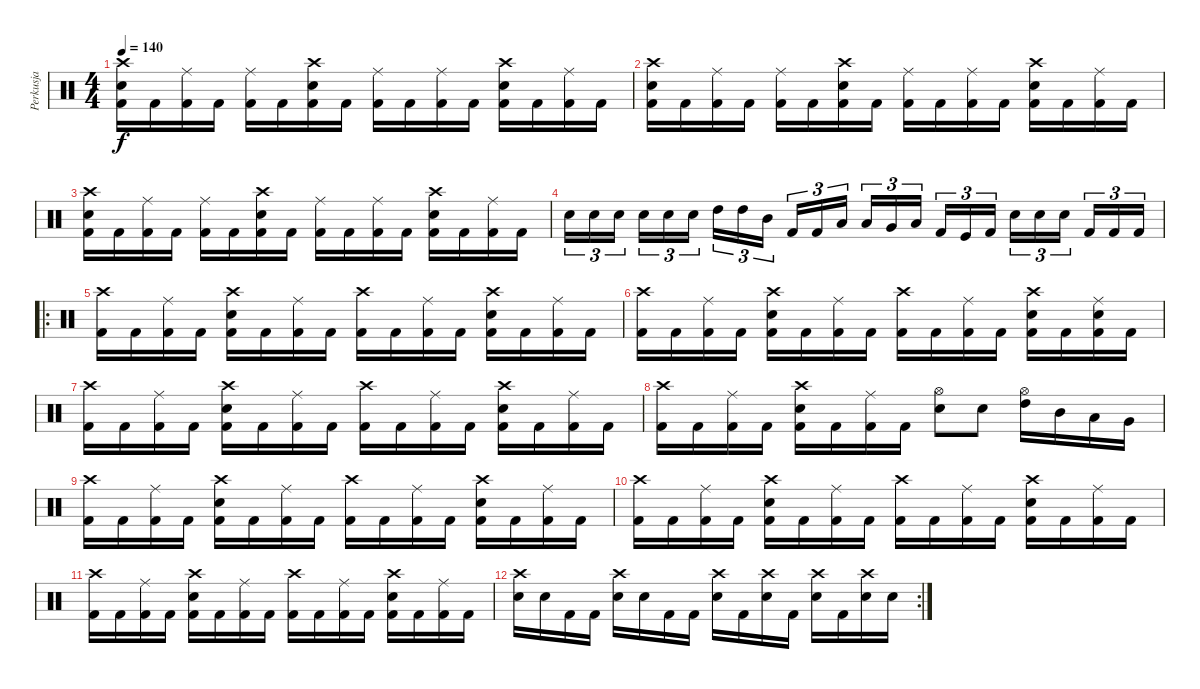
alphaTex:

\track ("Perkusja" "Perkusja") {instrument percussion}
\staff {score}
\articulation defaults
\ts (4 4)
\tempo 140
\clef neutral
\ks c
("Crash high (hit)" "Snare (hit) 2" "Kick (hit) 2").16{dy f} "Kick (hit) 2".16 ("Ride (middle)" "Kick (hit) 2").16 "Kick (hit) 2".16 ("Ride (middle)" "Kick (hit) 2").16 "Kick (hit) 2".16 ("Crash high (hit)" "Snare (hit) 2" "Kick (hit) 2").16 "Kick (hit) 2".16 ("Ride (middle)" "Kick (hit) 2").16 "Kick (hit) 2".16 ("Ride (middle)" "Kick (hit) 2").16 "Kick (hit) 2".16 ("Crash high (hit)" "Snare (hit) 2" "Kick (hit) 2").16 "Kick (hit) 2".16 ("Ride (middle)" "Kick (hit) 2").16 "Kick (hit) 2".16 |
("Crash high (hit)" "Snare (hit) 2" "Kick (hit) 2").16 "Kick (hit) 2".16 ("Ride (middle)" "Kick (hit) 2").16 "Kick (hit) 2".16 ("Ride (middle)" "Kick (hit) 2").16 "Kick (hit) 2".16 ("Crash high (hit)" "Snare (hit) 2" "Kick (hit) 2").16 "Kick (hit) 2".16 ("Ride (middle)" "Kick (hit) 2").16 "Kick (hit) 2".16 ("Ride (middle)" "Kick (hit) 2").16 "Kick (hit) 2".16 ("Crash high (hit)" "Snare (hit) 2" "Kick (hit) 2").16 "Kick (hit) 2".16 ("Ride (middle)" "Kick (hit) 2").16 "Kick (hit) 2".16 |
("Crash high (hit)" "Snare (hit) 2" "Kick (hit) 2").16 "Kick (hit) 2".16 ("Ride (middle)" "Kick (hit) 2").16 "Kick (hit) 2".16 ("Ride (middle)" "Kick (hit) 2").16 "Kick (hit) 2".16 ("Crash high (hit)" "Snare (hit) 2" "Kick (hit) 2").16 "Kick (hit) 2".16 ("Ride (middle)" "Kick (hit) 2").16 "Kick (hit) 2".16 ("Ride (middle)" "Kick (hit) 2").16 "Kick (hit) 2".16 ("Crash high (hit)" "Snare (hit) 2" "Kick (hit) 2").16 "Kick (hit) 2".16 ("Ride (middle)" "Kick (hit) 2").16 "Kick (hit) 2".16 |
"Snare (hit) 2".16{tu (3 2)} "Snare (hit) 2".16{tu (3 2)} "Snare (hit) 2".16{tu (3 2)} "Snare (hit) 2".16{tu (3 2)} "Snare (hit) 2".16{tu (3 2)} "Snare (hit) 2".16{tu (3 2)} "High Tom (hit)".16{tu (3 2)} "High Tom (hit)".16{tu (3 2)} "Mid Tom (hit)".16{tu (3 2)} "Kick (hit) 2".16{tu (3 2)} "Kick (hit) 2".16{tu (3 2)} "Low Tom (hit)".16{tu (3 2)} "Low Tom (hit)".16{tu (3 2)} "Very Low Tom (hit)".16{tu (3 2)} "Low Floor Tom (hit)".16{tu (3 2)} "Kick (hit) 2".16{tu (3 2)} "Kick (hit)".16{tu (3 2)} "Kick (hit) 2".16{tu (3 2)} "Snare (hit) 2".16{tu (3 2)} "Snare (hit) 2".16{tu (3 2)} "Snare (hit) 2".16{tu (3 2)} "Kick (hit) 2".16{tu (3 2)} "Kick (hit) 2".16{tu (3 2)} "Kick (hit) 2".16{tu (3 2)} |
\ro
("Crash high (hit)" "Kick (hit) 2").16 "Kick (hit) 2".16 ("Ride (middle)" "Kick (hit) 2").16 "Kick (hit) 2".16 ("Crash high (hit)" "Snare (hit) 2" "Kick (hit) 2").16 "Kick (hit) 2".16 ("Ride (middle)" "Kick (hit) 2").16 "Kick (hit) 2".16 ("Crash high (hit)" "Kick (hit) 2").16 "Kick (hit) 2".16 ("Ride (middle)" "Kick (hit) 2").16 "Kick (hit) 2".16 ("Crash high (hit)" "Snare (hit) 2" "Kick (hit) 2").16 "Kick (hit) 2".16 ("Ride (middle)" "Kick (hit) 2").16 "Kick (hit) 2".16 |
("Crash high (hit)" "Kick (hit) 2").16 "Kick (hit) 2".16 ("Ride (middle)" "Kick (hit) 2").16 "Kick (hit) 2".16 ("Crash high (hit)" "Snare (hit) 2" "Kick (hit) 2").16 "Kick (hit) 2".16 ("Ride (middle)" "Kick (hit) 2").16 "Kick (hit) 2".16 ("Crash high (hit)" "Kick (hit) 2").16 "Kick (hit) 2".16 ("Ride (middle)" "Kick (hit) 2").16 "Kick (hit) 2".16 ("Crash high (hit)" "Snare (hit) 2" "Kick (hit) 2").16 "Kick (hit) 2".16 ("Ride (middle)" "Snare (hit) 2" "Kick (hit) 2").16 "Kick (hit) 2".16 |
("Crash high (hit)" "Kick (hit) 2").16 "Kick (hit) 2".16 ("Ride (middle)" "Kick (hit) 2").16 "Kick (hit) 2".16 ("Crash high (hit)" "Snare (hit) 2" "Kick (hit) 2").16 "Kick (hit) 2".16 ("Ride (middle)" "Kick (hit) 2").16 "Kick (hit) 2".16 ("Crash high (hit)" "Kick (hit) 2").16 "Kick (hit) 2".16 ("Ride (middle)" "Kick (hit) 2").16 "Kick (hit) 2".16 ("Crash high (hit)" "Snare (hit) 2" "Kick (hit) 2").16 "Kick (hit) 2".16 ("Ride (middle)" "Kick (hit) 2").16 "Kick (hit) 2".16 |
("Crash high (hit)" "Kick (hit) 2").16 "Kick (hit) 2".16 ("Ride (middle)" "Kick (hit) 2").16 "Kick (hit) 2".16 ("Crash high (hit)" "Snare (hit) 2" "Kick (hit) 2").16 "Kick (hit) 2".16 ("Ride (middle)" "Kick (hit) 2").16 "Kick (hit) 2".16 ("Hi-Hat (open)" "Snare (hit) 2").8 "Snare (hit) 2".8 ("Hi-Hat (open)" "High Tom (hit)").16 "Mid Tom (hit)".16 "Low Tom (hit)".16 "Very Low Tom (hit)".16 |
("Crash high (hit)" "Kick (hit) 2").16 "Kick (hit) 2".16 ("Ride (middle)" "Kick (hit) 2").16 "Kick (hit) 2".16 ("Crash high (hit)" "Snare (hit) 2" "Kick (hit) 2").16 "Kick (hit) 2".16 ("Ride (middle)" "Kick (hit) 2").16 "Kick (hit) 2".16 ("Crash high (hit)" "Kick (hit) 2").16 "Kick (hit) 2".16 ("Ride (middle)" "Kick (hit) 2").16 "Kick (hit) 2".16 ("Crash high (hit)" "Snare (hit) 2" "Kick (hit) 2").16 "Kick (hit) 2".16 ("Ride (middle)" "Kick (hit) 2").16 "Kick (hit) 2".16 |
("Crash high (hit)" "Kick (hit) 2").16 "Kick (hit) 2".16 ("Ride (middle)" "Kick (hit) 2").16 "Kick (hit) 2".16 ("Crash high (hit)" "Snare (hit) 2" "Kick (hit) 2").16 "Kick (hit) 2".16 ("Ride (middle)" "Kick (hit) 2").16 "Kick (hit) 2".16 ("Crash high (hit)" "Kick (hit) 2").16 "Kick (hit) 2".16 ("Ride (middle)" "Kick (hit) 2").16 "Kick (hit) 2".16 ("Crash high (hit)" "Snare (hit) 2" "Kick (hit) 2").16 "Kick (hit) 2".16 ("Ride (middle)" "Kick (hit) 2").16 "Kick (hit) 2".16 |
("Crash high (hit)" "Kick (hit) 2").16 "Kick (hit) 2".16 ("Ride (middle)" "Kick (hit) 2").16 "Kick (hit) 2".16 ("Crash high (hit)" "Snare (hit) 2" "Kick (hit) 2").16 "Kick (hit) 2".16 ("Ride (middle)" "Kick (hit) 2").16 "Kick (hit) 2".16 ("Crash high (hit)" "Kick (hit) 2").16 "Kick (hit) 2".16 ("Ride (middle)" "Kick (hit) 2").16 "Kick (hit) 2".16 ("Crash high (hit)" "Snare (hit) 2" "Kick (hit) 2").16 "Kick (hit) 2".16 ("Ride (middle)" "Kick (hit) 2").16 "Kick (hit) 2".16 |
\rc 2
("Crash high (hit)" "Snare (hit) 2").16 "Snare (hit) 2".16 "Kick (hit) 2".16 "Kick (hit) 2".16 ("Crash high (hit)" "Snare (hit) 2").16 "Snare (hit) 2".16 "Kick (hit) 2".16 "Kick (hit) 2".16 ("Crash high (hit)" "Snare (hit) 2").16 "Kick (hit) 2".16 ("Crash high (hit)" "Snare (hit) 2").16 "Kick (hit) 2".16 ("Crash high (hit)" "Snare (hit) 2").16 "Kick (hit) 2".16 ("Crash high (hit)" "Snare (hit) 2").16 "Snare (hit) 2".16
